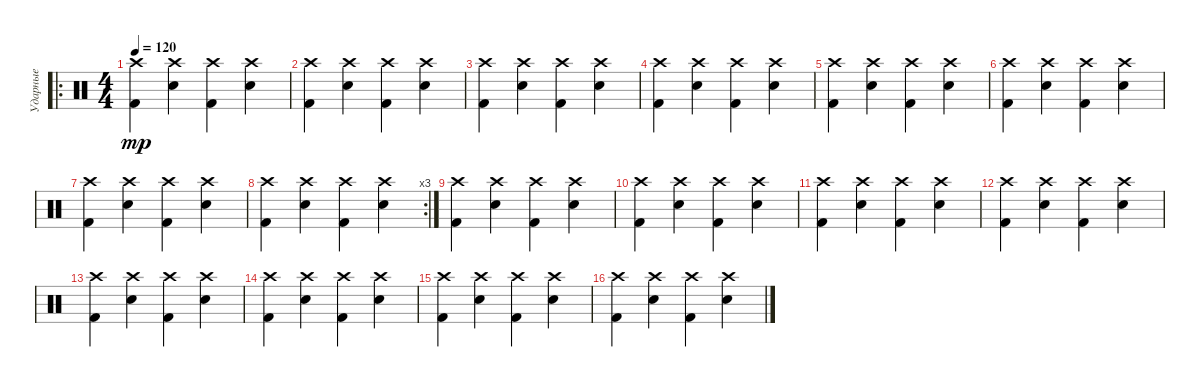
\track ("Ударные" "Ударные") {instrument percussion}
\staff {score}
\articulation defaults
\ro
\ts (4 4)
\tempo 120
\clef neutral
\ks c
("Crash high (hit)" "Kick (hit) 2").4{dy mp} ("Crash high (hit)" "Snare (hit) 2").4 ("Crash high (hit)" "Kick (hit) 2").4 ("Crash high (hit)" "Snare (hit) 2").4 |
("Crash high (hit)" "Kick (hit) 2").4 ("Crash high (hit)" "Snare (hit) 2").4 ("Crash high (hit)" "Kick (hit) 2").4 ("Crash high (hit)" "Snare (hit) 2").4 |
("Crash high (hit)" "Kick (hit) 2").4 ("Crash high (hit)" "Snare (hit) 2").4 ("Crash high (hit)" "Kick (hit) 2").4 ("Crash high (hit)" "Snare (hit) 2").4 |
("Crash high (hit)" "Kick (hit) 2").4 ("Crash high (hit)" "Snare (hit) 2").4 ("Crash high (hit)" "Kick (hit) 2").4 ("Crash high (hit)" "Snare (hit) 2").4 |
("Crash high (hit)" "Kick (hit) 2").4 ("Crash high (hit)" "Snare (hit) 2").4 ("Crash high (hit)" "Kick (hit) 2").4 ("Crash high (hit)" "Snare (hit) 2").4 |
("Crash high (hit)" "Kick (hit) 2").4 ("Crash high (hit)" "Snare (hit) 2").4 ("Crash high (hit)" "Kick (hit) 2").4 ("Crash high (hit)" "Snare (hit) 2").4 |
("Crash high (hit)" "Kick (hit) 2").4 ("Crash high (hit)" "Snare (hit) 2").4 ("Crash high (hit)" "Kick (hit) 2").4 ("Crash high (hit)" "Snare (hit) 2").4 |
\rc 3
("Crash high (hit)" "Kick (hit) 2").4 ("Crash high (hit)" "Snare (hit) 2").4 ("Crash high (hit)" "Kick (hit) 2").4 ("Crash high (hit)" "Snare (hit) 2").4 |
("Crash high (hit)" "Kick (hit) 2").4 ("Crash high (hit)" "Snare (hit) 2").4 ("Crash high (hit)" "Kick (hit) 2").4 ("Crash high (hit)" "Snare (hit) 2").4 |
("Crash high (hit)" "Kick (hit) 2").4 ("Crash high (hit)" "Snare (hit) 2").4 ("Crash high (hit)" "Kick (hit) 2").4 ("Crash high (hit)" "Snare (hit) 2").4 |
("Crash high (hit)" "Kick (hit) 2").4 ("Crash high (hit)" "Snare (hit) 2").4 ("Crash high (hit)" "Kick (hit) 2").4 ("Crash high (hit)" "Snare (hit) 2").4 |
("Crash high (hit)" "Kick (hit) 2").4 ("Crash high (hit)" "Snare (hit) 2").4 ("Crash high (hit)" "Kick (hit) 2").4 ("Crash high (hit)" "Snare (hit) 2").4 |
("Crash high (hit)" "Kick (hit) 2").4 ("Crash high (hit)" "Snare (hit) 2").4 ("Crash high (hit)" "Kick (hit) 2").4 ("Crash high (hit)" "Snare (hit) 2").4 |
("Crash high (hit)" "Kick (hit) 2").4 ("Crash high (hit)" "Snare (hit) 2").4 ("Crash high (hit)" "Kick (hit) 2").4 ("Crash high (hit)" "Snare (hit) 2").4 |
("Crash high (hit)" "Kick (hit) 2").4 ("Crash high (hit)" "Snare (hit) 2").4 ("Crash high (hit)" "Kick (hit) 2").4 ("Crash high (hit)" "Snare (hit) 2").4 |
("Crash high (hit)" "Kick (hit) 2").4 ("Crash high (hit)" "Snare (hit) 2").4 ("Crash high (hit)" "Kick (hit) 2").4 ("Crash high (hit)" "Snare (hit) 2").4
